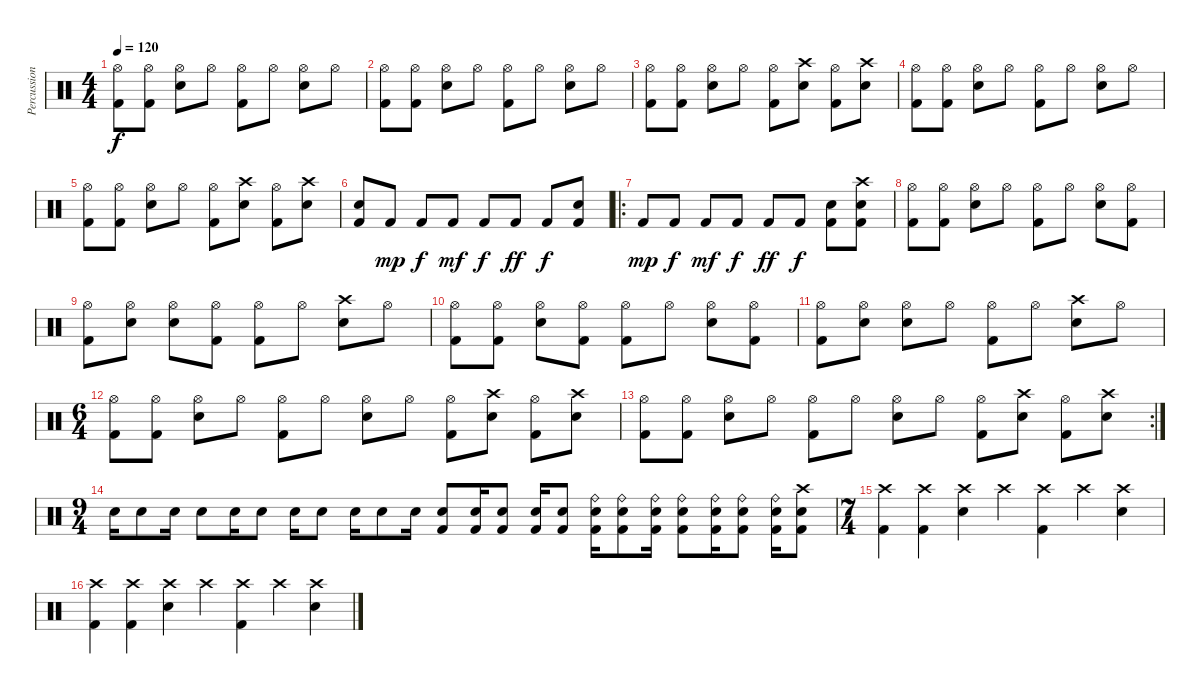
\track ("Percussion" "Percussion") {instrument percussion}
\staff {score}
\articulation defaults
\ts (4 4)
\tempo 120
\clef neutral
\ks c
("Hi-Hat (open)" "Kick (hit) 2").8{dy f} ("Hi-Hat (open)" "Kick (hit) 2").8 ("Hi-Hat (open)" "Snare (hit) 2").8 "Hi-Hat (open)".8 ("Hi-Hat (open)" "Kick (hit) 2").8 "Hi-Hat (open)".8 ("Hi-Hat (open)" "Snare (hit) 2").8 "Hi-Hat (open)".8 |
("Hi-Hat (open)" "Kick (hit) 2").8 ("Hi-Hat (open)" "Kick (hit) 2").8 ("Hi-Hat (open)" "Snare (hit) 2").8 "Hi-Hat (open)".8 ("Hi-Hat (open)" "Kick (hit) 2").8 "Hi-Hat (open)".8 ("Hi-Hat (open)" "Snare (hit) 2").8 "Hi-Hat (open)".8 |
("Hi-Hat (open)" "Kick (hit) 2").8 ("Hi-Hat (open)" "Kick (hit) 2").8 ("Hi-Hat (open)" "Snare (hit) 2").8 "Hi-Hat (open)".8 ("Hi-Hat (open)" "Kick (hit) 2").8 ("Crash high (hit)" "Snare (hit) 2").8 ("Hi-Hat (open)" "Kick (hit) 2").8 ("Crash high (hit)" "Snare (hit) 2").8 |
("Hi-Hat (open)" "Kick (hit) 2").8 ("Hi-Hat (open)" "Kick (hit) 2").8 ("Hi-Hat (open)" "Snare (hit) 2").8 "Hi-Hat (open)".8 ("Hi-Hat (open)" "Kick (hit) 2").8 "Hi-Hat (open)".8 ("Hi-Hat (open)" "Snare (hit) 2").8 "Hi-Hat (open)".8 |
("Hi-Hat (open)" "Kick (hit) 2").8 ("Hi-Hat (open)" "Kick (hit) 2").8 ("Hi-Hat (open)" "Snare (hit) 2").8 "Hi-Hat (open)".8 ("Hi-Hat (open)" "Kick (hit) 2").8 ("Crash high (hit)" "Snare (hit) 2").8 ("Hi-Hat (open)" "Kick (hit) 2").8 ("Crash high (hit)" "Snare (hit) 2").8 |
("Snare (hit) 2" "Kick (hit) 2").8 "Kick (hit) 2".8{dy mp} "Kick (hit) 2".8{dy f} "Kick (hit) 2".8{dy mf} "Kick (hit) 2".8{dy f} "Kick (hit) 2".8{dy ff} "Kick (hit) 2".8{dy f} ("Snare (hit) 2" "Kick (hit) 2").8 |
\ro "Kick (hit) 2".8{dy mp} "Kick (hit) 2".8{dy f} "Kick (hit) 2".8{dy mf} "Kick (hit) 2".8{dy f} "Kick (hit) 2".8{dy ff} "Kick (hit) 2".8{dy f}
("Snare (hit) 2" "Kick (hit) 2").8 ("Crash high (hit)" "Snare (hit) 2" "Kick (hit) 2").8 |
("Hi-Hat (open)" "Kick (hit) 2").8 ("Hi-Hat (open)" "Kick (hit) 2").8 ("Hi-Hat (open)" "Snare (hit) 2").8 "Hi-Hat (open)".8 ("Hi-Hat (open)" "Kick (hit) 2").8 "Hi-Hat (open)".8 ("Hi-Hat (open)" "Snare (hit) 2").8 ("Hi-Hat (open)" "Kick (hit) 2").8 |
("Hi-Hat (open)" "Kick (hit) 2").8 ("Hi-Hat (open)" "Snare (hit) 2").8 ("Hi-Hat (open)" "Snare (hit) 2").8 ("Hi-Hat (open)" "Kick (hit) 2").8 ("Hi-Hat (open)" "Kick (hit) 2").8 "Hi-Hat (open)".8 ("Crash high (hit)" "Snare (hit) 2").8 "Hi-Hat (open)".8 |
("Hi-Hat (open)" "Kick (hit) 2").8 ("Hi-Hat (open)" "Kick (hit) 2").8 ("Hi-Hat (open)" "Snare (hit) 2").8 ("Hi-Hat (open)" "Kick (hit) 2").8 ("Hi-Hat (open)" "Kick (hit) 2").8 "Hi-Hat (open)".8 ("Hi-Hat (open)" "Snare (hit) 2").8 ("Hi-Hat (open)" "Kick (hit) 2").8 |
("Hi-Hat (open)" "Kick (hit) 2").8 ("Hi-Hat (open)" "Snare (hit) 2").8 ("Hi-Hat (open)" "Snare (hit) 2").8 "Hi-Hat (open)".8 ("Hi-Hat (open)" "Kick (hit) 2").8 "Hi-Hat (open)".8 ("Crash high (hit)" "Snare (hit) 2").8 "Hi-Hat (open)".8 |
\ts (6 4)
("Hi-Hat (open)" "Kick (hit) 2").8 ("Hi-Hat (open)" "Kick (hit) 2").8 ("Hi-Hat (open)" "Snare (hit) 2").8 "Hi-Hat (open)".8 ("Hi-Hat (open)" "Kick (hit) 2").8 "Hi-Hat (open)".8 ("Hi-Hat (open)" "Snare (hit) 2").8 "Hi-Hat (open)".8 ("Hi-Hat (open)" "Kick (hit) 2").8 ("Crash high (hit)" "Snare (hit) 2").8 ("Hi-Hat (open)" "Kick (hit) 2").8 ("Crash high (hit)" "Snare (hit) 2").8 |
\rc 2
("Hi-Hat (open)" "Kick (hit) 2").8 ("Hi-Hat (open)" "Kick (hit) 2").8 ("Hi-Hat (open)" "Snare (hit) 2").8 "Hi-Hat (open)".8 ("Hi-Hat (open)" "Kick (hit) 2").8 "Hi-Hat (open)".8 ("Hi-Hat (open)" "Snare (hit) 2").8 "Hi-Hat (open)".8 ("Hi-Hat (open)" "Kick (hit) 2").8 ("Crash high (hit)" "Snare (hit) 2").8 ("Hi-Hat (open)" "Kick (hit) 2").8 ("Crash high (hit)" "Snare (hit) 2").8 |
\ts (9 4)
"Electric Snare (hit)".16 "Snare (hit) 2".8 "Electric Snare (hit)".16 "Snare (hit) 2".8 "Electric Snare (hit)".16 "Snare (hit) 2".8 "Electric Snare (hit)".16 "Snare (hit) 2".8 "Electric Snare (hit)".16 "Snare (hit) 2".8 "Electric Snare (hit)".16 ("Snare (hit) 2" "Kick (hit) 2").8 ("Electric Snare (hit)" "Kick (hit) 2").16 ("Snare (hit) 2" "Kick (hit) 2").8 ("Electric Snare (hit)" "Kick (hit) 2").16 ("Snare (hit) 2" "Kick (hit) 2").8 ("Ride (bell)" "Electric Snare (hit)" "Kick (hit) 2").16 ("Ride (bell)" "Snare (hit) 2" "Kick (hit) 2").8 ("Ride (bell)" "Electric Snare (hit)" "Kick (hit) 2").16 ("Ride (bell)" "Snare (hit) 2" "Kick (hit) 2").8 ("Ride (bell)" "Electric Snare (hit)" "Kick (hit) 2").16 ("Ride (bell)" "Snare (hit) 2" "Kick (hit) 2").8 ("Ride (bell)" "Electric Snare (hit)" "Kick (hit) 2").16 ("Crash high (hit)" "Snare (hit) 2" "Kick (hit) 2").8 |
\ts (7 4)
("Crash high (hit)" "Kick (hit) 2").4 ("Crash high (hit)" "Kick (hit) 2").4 ("Crash high (hit)" "Snare (hit) 2").4 "Crash high (hit)".4 ("Crash high (hit)" "Kick (hit) 2").4 "Crash high (hit)".4 ("Crash high (hit)" "Snare (hit) 2").4 |
("Crash high (hit)" "Kick (hit) 2").4 ("Crash high (hit)" "Kick (hit) 2").4 ("Crash high (hit)" "Snare (hit) 2").4 "Crash high (hit)".4 ("Crash high (hit)" "Kick (hit) 2").4 "Crash high (hit)".4 ("Crash high (hit)" "Snare (hit) 2").4
